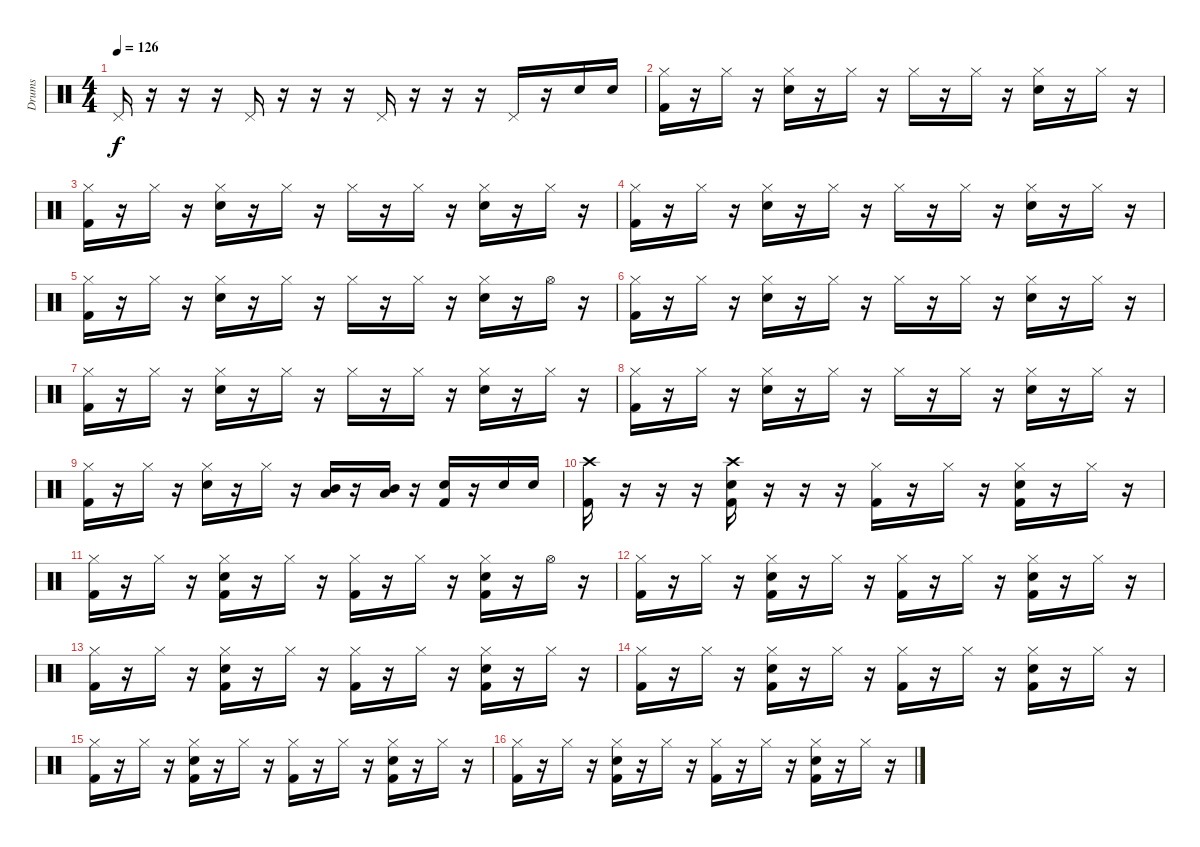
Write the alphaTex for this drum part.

\track ("Drums" "Drums") {instrument percussion}
\staff {score}
\articulation defaults
\ts (4 4)
\tempo 126
\clef neutral
\ks c "Pedal Hi-Hat (hit)".16{dy f}
r.16 r.16 r.16 "Pedal Hi-Hat (hit)".16 r.16 r.16 r.16 "Pedal Hi-Hat (hit)".16 r.16 r.16 r.16 "Pedal Hi-Hat (hit)".16 r.16 "Snare (hit) 2".16 "Snare (hit) 2".16 |
("Hi-Hat (closed)" "Kick (hit) 2").16 r.16 "Hi-Hat (closed)".16 r.16 ("Hi-Hat (closed)" "Snare (hit) 2").16 r.16 "Hi-Hat (closed)".16 r.16 "Hi-Hat (closed)".16 r.16 "Hi-Hat (closed)".16 r.16 ("Hi-Hat (closed)" "Snare (hit) 2").16 r.16 "Hi-Hat (closed)".16 r.16 |
("Hi-Hat (closed)" "Kick (hit) 2").16 r.16 "Hi-Hat (closed)".16 r.16 ("Hi-Hat (closed)" "Snare (hit) 2").16 r.16 "Hi-Hat (closed)".16 r.16 "Hi-Hat (closed)".16 r.16 "Hi-Hat (closed)".16 r.16 ("Hi-Hat (closed)" "Snare (hit) 2").16 r.16 "Hi-Hat (closed)".16 r.16 |
("Hi-Hat (closed)" "Kick (hit) 2").16 r.16 "Hi-Hat (closed)".16 r.16 ("Hi-Hat (closed)" "Snare (hit) 2").16 r.16 "Hi-Hat (closed)".16 r.16 "Hi-Hat (closed)".16 r.16 "Hi-Hat (closed)".16 r.16 ("Hi-Hat (closed)" "Snare (hit) 2").16 r.16 "Hi-Hat (closed)".16 r.16 |
("Hi-Hat (closed)" "Kick (hit) 2").16 r.16 "Hi-Hat (closed)".16 r.16 ("Hi-Hat (closed)" "Snare (hit) 2").16 r.16 "Hi-Hat (closed)".16 r.16 "Hi-Hat (closed)".16 r.16 "Hi-Hat (closed)".16 r.16 ("Hi-Hat (closed)" "Snare (hit) 2").16 r.16 "Hi-Hat (open)".16 r.16 |
("Hi-Hat (closed)" "Kick (hit) 2").16 r.16 "Hi-Hat (closed)".16 r.16 ("Hi-Hat (closed)" "Snare (hit) 2").16 r.16 "Hi-Hat (closed)".16 r.16 "Hi-Hat (closed)".16 r.16 "Hi-Hat (closed)".16 r.16 ("Hi-Hat (closed)" "Snare (hit) 2").16 r.16 "Hi-Hat (closed)".16 r.16 |
("Hi-Hat (closed)" "Kick (hit) 2").16 r.16 "Hi-Hat (closed)".16 r.16 ("Hi-Hat (closed)" "Snare (hit) 2").16 r.16 "Hi-Hat (closed)".16 r.16 "Hi-Hat (closed)".16 r.16 "Hi-Hat (closed)".16 r.16 ("Hi-Hat (closed)" "Snare (hit) 2").16 r.16 "Hi-Hat (closed)".16 r.16 |
("Hi-Hat (closed)" "Kick (hit) 2").16 r.16 "Hi-Hat (closed)".16 r.16 ("Hi-Hat (closed)" "Snare (hit) 2").16 r.16 "Hi-Hat (closed)".16 r.16 "Hi-Hat (closed)".16 r.16 "Hi-Hat (closed)".16 r.16 ("Hi-Hat (closed)" "Snare (hit) 2").16 r.16 "Hi-Hat (closed)".16 r.16 |
("Hi-Hat (closed)" "Kick (hit) 2").16 r.16 "Hi-Hat (closed)".16 r.16 ("Hi-Hat (closed)" "Snare (hit) 2").16 r.16 "Hi-Hat (closed)".16 r.16 ("Mid Tom (hit)" "Low Floor Tom (hit)").16 r.16 ("Mid Tom (hit)" "Low Floor Tom (hit)").16 r.16 ("Snare (hit) 2" "Kick (hit) 2").16 r.16 "Snare (hit) 2".16 "Snare (hit) 2".16 |
("Crash high (hit)" "Kick (hit) 2").16 r.16 r.16 r.16 ("Crash high (hit)" "Snare (hit) 2" "Kick (hit) 2").16 r.16 r.16 r.16 ("Hi-Hat (closed)" "Kick (hit) 2").16 r.16 "Hi-Hat (closed)".16 r.16 ("Hi-Hat (closed)" "Snare (hit) 2" "Kick (hit) 2").16 r.16 "Hi-Hat (closed)".16 r.16 |
("Hi-Hat (closed)" "Kick (hit) 2").16 r.16 "Hi-Hat (closed)".16 r.16 ("Hi-Hat (closed)" "Snare (hit) 2" "Kick (hit) 2").16 r.16 "Hi-Hat (closed)".16 r.16 ("Hi-Hat (closed)" "Kick (hit) 2").16 r.16 "Hi-Hat (closed)".16 r.16 ("Hi-Hat (closed)" "Snare (hit) 2" "Kick (hit) 2").16 r.16 "Hi-Hat (open)".16 r.16 |
("Hi-Hat (closed)" "Kick (hit) 2").16 r.16 "Hi-Hat (closed)".16 r.16 ("Hi-Hat (closed)" "Snare (hit) 2" "Kick (hit) 2").16 r.16 "Hi-Hat (closed)".16 r.16 ("Hi-Hat (closed)" "Kick (hit) 2").16 r.16 "Hi-Hat (closed)".16 r.16 ("Hi-Hat (closed)" "Snare (hit) 2" "Kick (hit) 2").16 r.16 "Hi-Hat (closed)".16 r.16 |
("Hi-Hat (closed)" "Kick (hit) 2").16 r.16 "Hi-Hat (closed)".16 r.16 ("Hi-Hat (closed)" "Snare (hit) 2" "Kick (hit) 2").16 r.16 "Hi-Hat (closed)".16 r.16 ("Hi-Hat (closed)" "Kick (hit) 2").16 r.16 "Hi-Hat (closed)".16 r.16 ("Hi-Hat (closed)" "Snare (hit) 2" "Kick (hit) 2").16 r.16 "Hi-Hat (closed)".16 r.16 |
("Hi-Hat (closed)" "Kick (hit) 2").16 r.16 "Hi-Hat (closed)".16 r.16 ("Hi-Hat (closed)" "Snare (hit) 2" "Kick (hit) 2").16 r.16 "Hi-Hat (closed)".16 r.16 ("Hi-Hat (closed)" "Kick (hit) 2").16 r.16 "Hi-Hat (closed)".16 r.16 ("Hi-Hat (closed)" "Snare (hit) 2" "Kick (hit) 2").16 r.16 "Hi-Hat (closed)".16 r.16 |
("Hi-Hat (closed)" "Kick (hit) 2").16 r.16 "Hi-Hat (closed)".16 r.16 ("Hi-Hat (closed)" "Snare (hit) 2" "Kick (hit) 2").16 r.16 "Hi-Hat (closed)".16 r.16 ("Hi-Hat (closed)" "Kick (hit) 2").16 r.16 "Hi-Hat (closed)".16 r.16 ("Hi-Hat (closed)" "Snare (hit) 2" "Kick (hit) 2").16 r.16 "Hi-Hat (closed)".16 r.16 |
("Hi-Hat (closed)" "Kick (hit) 2").16 r.16 "Hi-Hat (closed)".16 r.16 ("Hi-Hat (closed)" "Snare (hit) 2" "Kick (hit) 2").16 r.16 "Hi-Hat (closed)".16 r.16 ("Hi-Hat (closed)" "Kick (hit) 2").16 r.16 "Hi-Hat (closed)".16 r.16 ("Hi-Hat (closed)" "Snare (hit) 2" "Kick (hit) 2").16 r.16 "Hi-Hat (closed)".16 r.16
